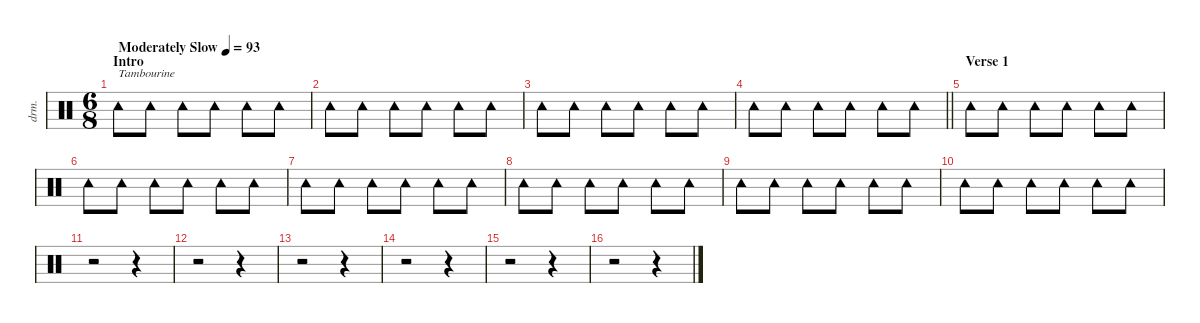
\defaultSystemsLayout 4
\hideDynamics
\bracketExtendMode nobrackets
\otherSystemsTrackNameOrientation horizontal
\track ("Tambourine" "drm.") {instrument percussion}
\staff {score}
\articulation defaults
\ts (6 8)
\beaming (8 2 2 2 2)
\section ("" "Intro")
\tempo (93 "Moderately Slow")
\clef neutral
\ks c "Tambourine (hit)".8{txt "Tambourine" dy fff beam Down} "Tambourine (hit)".8{beam Down} "Tambourine (hit)".8{beam Down} "Tambourine (hit)".8{beam Down} "Tambourine (hit)".8{beam Down} "Tambourine (hit)".8{beam Down}
|
"Tambourine (hit)".8{beam Down} "Tambourine (hit)".8{beam Down} "Tambourine (hit)".8{beam Down} "Tambourine (hit)".8{beam Down} "Tambourine (hit)".8{beam Down} "Tambourine (hit)".8{beam Down} |
"Tambourine (hit)".8{beam Down} "Tambourine (hit)".8{beam Down} "Tambourine (hit)".8{beam Down} "Tambourine (hit)".8{beam Down} "Tambourine (hit)".8{beam Down} "Tambourine (hit)".8{beam Down} |
\barLineRight lightlight "Tambourine (hit)".8{beam Down} "Tambourine (hit)".8{beam Down} "Tambourine (hit)".8{beam Down} "Tambourine (hit)".8{beam Down} "Tambourine (hit)".8{beam Down} "Tambourine (hit)".8{beam Down}
|
\section ("" "Verse 1")
"Tambourine (hit)".8{beam Down} "Tambourine (hit)".8{beam Down} "Tambourine (hit)".8{beam Down} "Tambourine (hit)".8{beam Down} "Tambourine (hit)".8{beam Down} "Tambourine (hit)".8{beam Down} |
"Tambourine (hit)".8{beam Down} "Tambourine (hit)".8{beam Down} "Tambourine (hit)".8{beam Down} "Tambourine (hit)".8{beam Down} "Tambourine (hit)".8{beam Down} "Tambourine (hit)".8{beam Down} |
"Tambourine (hit)".8{beam Down} "Tambourine (hit)".8{beam Down} "Tambourine (hit)".8{beam Down} "Tambourine (hit)".8{beam Down} "Tambourine (hit)".8{beam Down} "Tambourine (hit)".8{beam Down} |
"Tambourine (hit)".8{beam Down} "Tambourine (hit)".8{beam Down} "Tambourine (hit)".8{beam Down} "Tambourine (hit)".8{beam Down} "Tambourine (hit)".8{beam Down} "Tambourine (hit)".8{beam Down} |
"Tambourine (hit)".8{beam Down} "Tambourine (hit)".8{beam Down} "Tambourine (hit)".8{beam Down} "Tambourine (hit)".8{beam Down} "Tambourine (hit)".8{beam Down} "Tambourine (hit)".8{beam Down} |
"Tambourine (hit)".8{beam Down} "Tambourine (hit)".8{beam Down} "Tambourine (hit)".8{beam Down} "Tambourine (hit)".8{beam Down} "Tambourine (hit)".8{beam Down} "Tambourine (hit)".8{beam Down} |
r.2{beam Down} r.4{beam Down} |
r.2{beam Down} r.4{beam Down} |
r.2{beam Down} r.4{beam Down} |
r.2{beam Down} r.4{beam Down} |
r.2{beam Down} r.4{beam Down} |
r.2{beam Down} r.4{beam Down}
